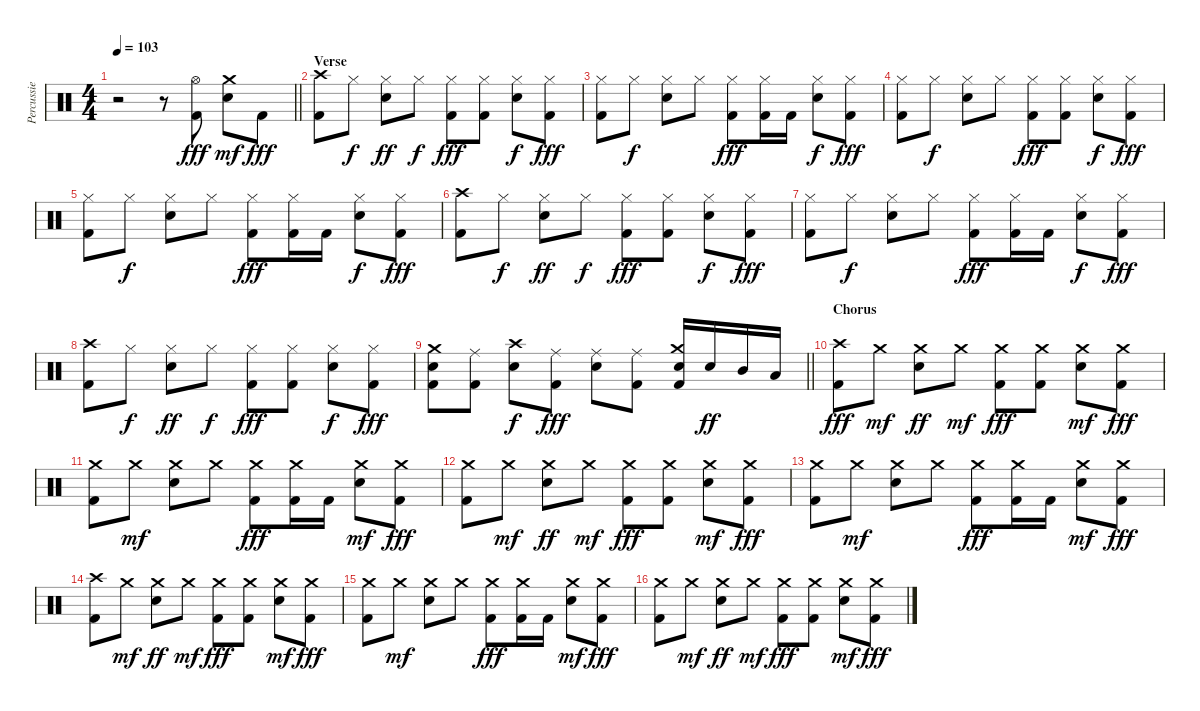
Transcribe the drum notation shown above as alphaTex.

\track ("Percussie" "Percussie") {instrument percussion}
\staff {score}
\articulation defaults
\ts (4 4)
\tempo 103
\clef neutral
\barLineRight lightlight
\ks c
r.2{dy f} r.8 ("Hi-Hat (open)" "Kick (hit) 2").8{dy fff} ("Crash medium (hit)" "Electric Snare (hit)").8{dy mf} "Kick (hit) 2".8{dy fff} |
\section ("" "Verse")
("Crash high (hit)" "Kick (hit) 2").8 "Hi-Hat (closed)".8{dy f} ("Hi-Hat (closed)" "Electric Snare (hit)").8{dy ff} "Hi-Hat (closed)".8{dy f} ("Hi-Hat (closed)" "Kick (hit) 2").8{dy fff} ("Hi-Hat (closed)" "Kick (hit) 2").8 ("Hi-Hat (closed)" "Electric Snare (hit)").8{dy f} ("Hi-Hat (closed)" "Kick (hit) 2").8{dy fff} |
("Hi-Hat (closed)" "Kick (hit) 2").8 "Hi-Hat (closed)".8{dy f} ("Hi-Hat (closed)" "Electric Snare (hit)").8 "Hi-Hat (closed)".8 ("Hi-Hat (closed)" "Kick (hit) 2").8{dy fff} ("Hi-Hat (closed)" "Kick (hit) 2").16 "Kick (hit) 2".16 ("Hi-Hat (closed)" "Electric Snare (hit)").8{dy f} ("Hi-Hat (closed)" "Kick (hit) 2").8{dy fff} |
("Hi-Hat (closed)" "Kick (hit) 2").8 "Hi-Hat (closed)".8{dy f} ("Hi-Hat (closed)" "Electric Snare (hit)").8 "Hi-Hat (closed)".8 ("Hi-Hat (closed)" "Kick (hit) 2").8{dy fff} ("Hi-Hat (closed)" "Kick (hit) 2").8 ("Hi-Hat (closed)" "Electric Snare (hit)").8{dy f} ("Hi-Hat (closed)" "Kick (hit) 2").8{dy fff} |
("Hi-Hat (closed)" "Kick (hit) 2").8 "Hi-Hat (closed)".8{dy f} ("Hi-Hat (closed)" "Electric Snare (hit)").8 "Hi-Hat (closed)".8 ("Hi-Hat (closed)" "Kick (hit) 2").8{dy fff} ("Hi-Hat (closed)" "Kick (hit) 2").16 "Kick (hit) 2".16 ("Hi-Hat (closed)" "Electric Snare (hit)").8{dy f} ("Hi-Hat (closed)" "Kick (hit) 2").8{dy fff} |
("Crash high (hit)" "Kick (hit) 2").8 "Hi-Hat (closed)".8{dy f} ("Hi-Hat (closed)" "Electric Snare (hit)").8{dy ff} "Hi-Hat (closed)".8{dy f} ("Hi-Hat (closed)" "Kick (hit) 2").8{dy fff} ("Hi-Hat (closed)" "Kick (hit) 2").8 ("Hi-Hat (closed)" "Electric Snare (hit)").8{dy f} ("Hi-Hat (closed)" "Kick (hit) 2").8{dy fff} |
("Hi-Hat (closed)" "Kick (hit) 2").8 "Hi-Hat (closed)".8{dy f} ("Hi-Hat (closed)" "Electric Snare (hit)").8 "Hi-Hat (closed)".8 ("Hi-Hat (closed)" "Kick (hit) 2").8{dy fff} ("Hi-Hat (closed)" "Kick (hit) 2").16 "Kick (hit) 2".16 ("Hi-Hat (closed)" "Electric Snare (hit)").8{dy f} ("Hi-Hat (closed)" "Kick (hit) 2").8{dy fff} |
("Crash high (hit)" "Kick (hit) 2").8 "Hi-Hat (closed)".8{dy f} ("Hi-Hat (closed)" "Electric Snare (hit)").8{dy ff} "Hi-Hat (closed)".8{dy f} ("Hi-Hat (closed)" "Kick (hit) 2").8{dy fff} ("Hi-Hat (closed)" "Kick (hit) 2").8 ("Hi-Hat (closed)" "Electric Snare (hit)").8{dy f} ("Hi-Hat (closed)" "Kick (hit) 2").8{dy fff} |
\barLineRight lightlight
("Crash medium (hit)" "Electric Snare (hit)" "Kick (hit) 2").8 ("Ride (middle)" "Kick (hit) 2").8 ("Crash high (hit)" "Electric Snare (hit)").8{dy f} ("Ride (middle)" "Kick (hit) 2").8{dy fff} ("Ride (middle)" "Electric Snare (hit)").8 ("Ride (middle)" "Kick (hit) 2").8 ("Crash medium (hit)" "Electric Snare (hit)" "Kick (hit) 2").16 "Electric Snare (hit)".16{dy ff} "Mid Tom (hit)".16 "Low Tom (hit)".16 |
\section ("" "Chorus")
("Crash high (hit)" "Kick (hit) 2").8{dy fff} "Crash medium (hit)".8{dy mf} ("Crash medium (hit)" "Electric Snare (hit)").8{dy ff} "Crash medium (hit)".8{dy mf} ("Crash medium (hit)" "Kick (hit) 2").8{dy fff} ("Crash medium (hit)" "Kick (hit) 2").8 ("Crash medium (hit)" "Electric Snare (hit)").8{dy mf} ("Crash medium (hit)" "Kick (hit) 2").8{dy fff} |
("Crash medium (hit)" "Kick (hit) 2").8 "Crash medium (hit)".8{dy mf} ("Crash medium (hit)" "Electric Snare (hit)").8 "Crash medium (hit)".8 ("Crash medium (hit)" "Kick (hit) 2").8{dy fff} ("Crash medium (hit)" "Kick (hit) 2").16 "Kick (hit) 2".16 ("Crash medium (hit)" "Electric Snare (hit)").8{dy mf} ("Crash medium (hit)" "Kick (hit) 2").8{dy fff} |
("Crash medium (hit)" "Kick (hit) 2").8 "Crash medium (hit)".8{dy mf} ("Crash medium (hit)" "Electric Snare (hit)").8{dy ff} "Crash medium (hit)".8{dy mf} ("Crash medium (hit)" "Kick (hit) 2").8{dy fff} ("Crash medium (hit)" "Kick (hit) 2").8 ("Crash medium (hit)" "Electric Snare (hit)").8{dy mf} ("Crash medium (hit)" "Kick (hit) 2").8{dy fff} |
("Crash medium (hit)" "Kick (hit) 2").8 "Crash medium (hit)".8{dy mf} ("Crash medium (hit)" "Electric Snare (hit)").8 "Crash medium (hit)".8 ("Crash medium (hit)" "Kick (hit) 2").8{dy fff} ("Crash medium (hit)" "Kick (hit) 2").16 "Kick (hit) 2".16 ("Crash medium (hit)" "Electric Snare (hit)").8{dy mf} ("Crash medium (hit)" "Kick (hit) 2").8{dy fff} |
("Crash high (hit)" "Kick (hit) 2").8 "Crash medium (hit)".8{dy mf} ("Crash medium (hit)" "Electric Snare (hit)").8{dy ff} "Crash medium (hit)".8{dy mf} ("Crash medium (hit)" "Kick (hit) 2").8{dy fff} ("Crash medium (hit)" "Kick (hit) 2").8 ("Crash medium (hit)" "Electric Snare (hit)").8{dy mf} ("Crash medium (hit)" "Kick (hit) 2").8{dy fff} |
("Crash medium (hit)" "Kick (hit) 2").8 "Crash medium (hit)".8{dy mf} ("Crash medium (hit)" "Electric Snare (hit)").8 "Crash medium (hit)".8 ("Crash medium (hit)" "Kick (hit) 2").8{dy fff} ("Crash medium (hit)" "Kick (hit) 2").16 "Kick (hit) 2".16 ("Crash medium (hit)" "Electric Snare (hit)").8{dy mf} ("Crash medium (hit)" "Kick (hit) 2").8{dy fff} |
("Crash medium (hit)" "Kick (hit) 2").8 "Crash medium (hit)".8{dy mf} ("Crash medium (hit)" "Electric Snare (hit)").8{dy ff} "Crash medium (hit)".8{dy mf} ("Crash medium (hit)" "Kick (hit) 2").8{dy fff} ("Crash medium (hit)" "Kick (hit) 2").8 ("Crash medium (hit)" "Electric Snare (hit)").8{dy mf} ("Crash medium (hit)" "Kick (hit) 2").8{dy fff}
